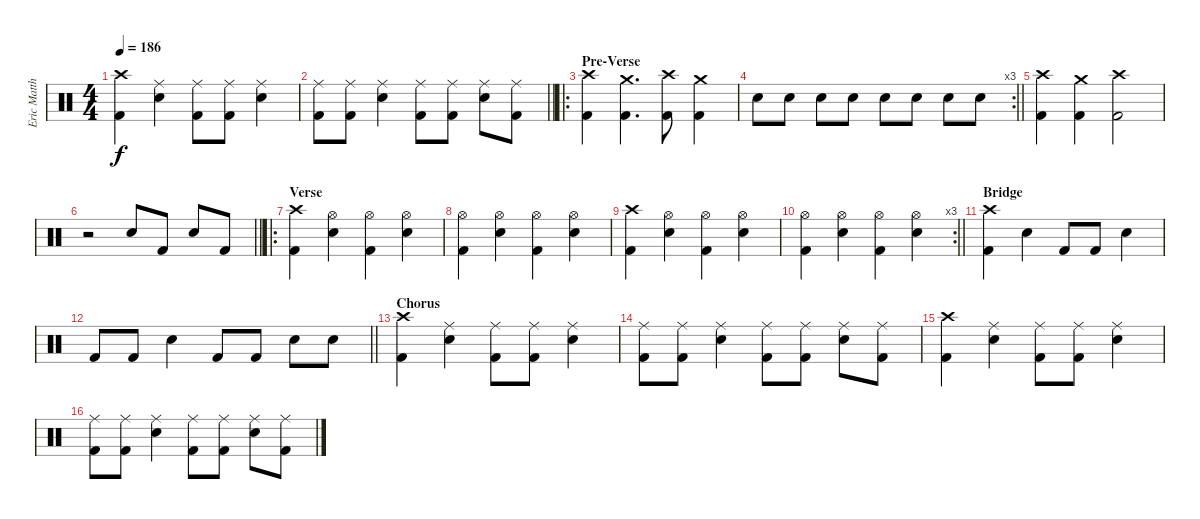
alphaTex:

\track ("Eric Matthews" "Eric Matth") {instrument percussion}
\staff {score}
\articulation defaults
\ts (4 4)
\tempo 186
\clef neutral
\ks c
("Crash high (hit)" "Kick (hit) 2").4{dy f} ("Ride (middle)" "Electric Snare (hit)").4 ("Ride (middle)" "Kick (hit) 2").8 ("Ride (middle)" "Kick (hit) 2").8 ("Ride (middle)" "Electric Snare (hit)").4 |
\barLineRight lightlight
("Ride (middle)" "Kick (hit) 2").8 ("Ride (middle)" "Kick (hit) 2").8 ("Ride (middle)" "Electric Snare (hit)").4 ("Ride (middle)" "Kick (hit) 2").8 ("Ride (middle)" "Kick (hit) 2").8 ("Ride (middle)" "Electric Snare (hit)").8 ("Ride (middle)" "Kick (hit) 2").8 |
\ro
\section ("" "Pre-Verse")
("Crash high (hit)" "Kick (hit) 2").4 ("Crash medium (hit)" "Kick (hit) 2").4{d} ("Crash high (hit)" "Kick (hit) 2").8 ("Crash medium (hit)" "Kick (hit) 2").4 |
\rc 3
\barLineRight lightlight "Electric Snare (hit)".8 "Electric Snare (hit)".8 "Electric Snare (hit)".8 "Electric Snare (hit)".8 "Electric Snare (hit)".8 "Electric Snare (hit)".8 "Electric Snare (hit)".8 "Electric Snare (hit)".8
|
("Crash high (hit)" "Kick (hit) 2").4 ("Crash medium (hit)" "Kick (hit) 2").4 ("Crash high (hit)" "Kick (hit) 2").2 |
\barLineRight lightlight
r.2 "Electric Snare (hit)".8 "Kick (hit) 2".8 "Electric Snare (hit)".8 "Kick (hit) 2".8 |
\ro
\section ("" "Verse")
("Crash high (hit)" "Kick (hit) 2").4 ("Hi-Hat (open)" "Electric Snare (hit)").4 ("Hi-Hat (open)" "Kick (hit) 2").4 ("Hi-Hat (open)" "Electric Snare (hit)").4 |
("Hi-Hat (open)" "Kick (hit) 2").4 ("Hi-Hat (open)" "Electric Snare (hit)").4 ("Hi-Hat (open)" "Kick (hit) 2").4 ("Hi-Hat (open)" "Electric Snare (hit)").4 |
("Crash high (hit)" "Kick (hit) 2").4 ("Hi-Hat (open)" "Electric Snare (hit)").4 ("Hi-Hat (open)" "Kick (hit) 2").4 ("Hi-Hat (open)" "Electric Snare (hit)").4 |
\rc 3
\barLineRight lightlight
("Hi-Hat (open)" "Kick (hit) 2").4 ("Hi-Hat (open)" "Electric Snare (hit)").4 ("Hi-Hat (open)" "Kick (hit) 2").4 ("Hi-Hat (open)" "Electric Snare (hit)").4 |
\section ("" "Bridge")
("Crash high (hit)" "Kick (hit) 2").4 "Electric Snare (hit)".4 "Kick (hit) 2".8 "Kick (hit) 2".8 "Electric Snare (hit)".4 |
\barLineRight lightlight "Kick (hit) 2".8 "Kick (hit) 2".8 "Electric Snare (hit)".4 "Kick (hit) 2".8 "Kick (hit) 2".8 "Electric Snare (hit)".8 "Electric Snare (hit)".8
|
\section ("" "Chorus")
("Crash high (hit)" "Kick (hit) 2").4 ("Ride (middle)" "Electric Snare (hit)").4 ("Ride (middle)" "Kick (hit) 2").8 ("Ride (middle)" "Kick (hit) 2").8 ("Ride (middle)" "Electric Snare (hit)").4 |
("Ride (middle)" "Kick (hit) 2").8 ("Ride (middle)" "Kick (hit) 2").8 ("Ride (middle)" "Electric Snare (hit)").4 ("Ride (middle)" "Kick (hit) 2").8 ("Ride (middle)" "Kick (hit) 2").8 ("Ride (middle)" "Electric Snare (hit)").8 ("Ride (middle)" "Kick (hit) 2").8 |
("Crash high (hit)" "Kick (hit) 2").4 ("Ride (middle)" "Electric Snare (hit)").4 ("Ride (middle)" "Kick (hit) 2").8 ("Ride (middle)" "Kick (hit) 2").8 ("Ride (middle)" "Electric Snare (hit)").4 |
("Ride (middle)" "Kick (hit) 2").8 ("Ride (middle)" "Kick (hit) 2").8 ("Ride (middle)" "Electric Snare (hit)").4 ("Ride (middle)" "Kick (hit) 2").8 ("Ride (middle)" "Kick (hit) 2").8 ("Ride (middle)" "Electric Snare (hit)").8 ("Ride (middle)" "Kick (hit) 2").8
